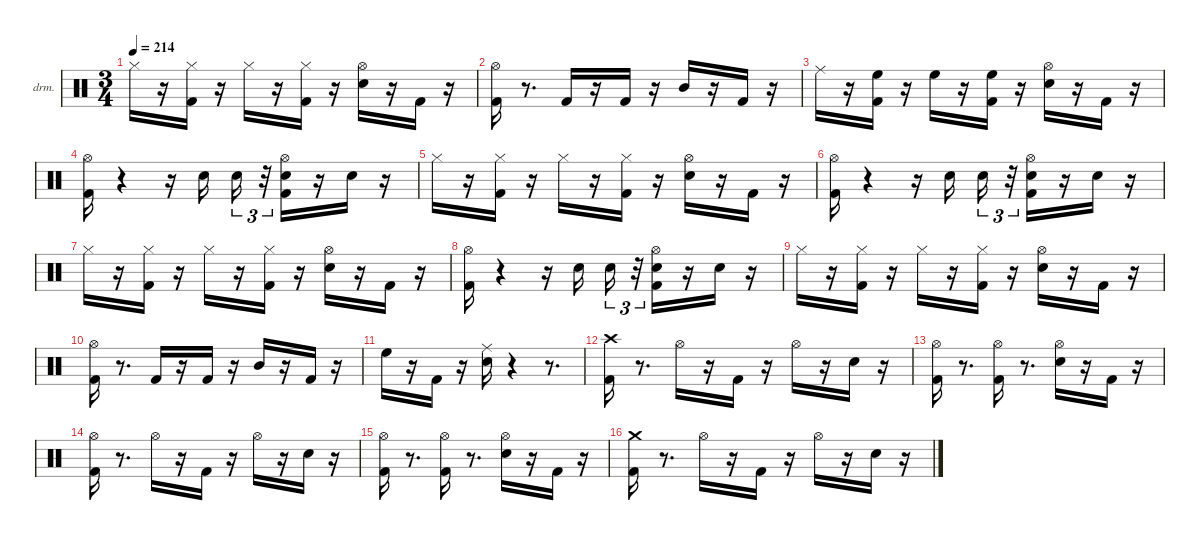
\hideDynamics
\bracketExtendMode nobrackets
\firstSystemTrackNameOrientation horizontal
\otherSystemsTrackNameOrientation horizontal
\track ("EZdrummer 3" "drm.") {instrument percussion}
\staff {score}
\articulation defaults
\ts (3 4)
\tempo 214
\clef neutral
\ks aminor "Hi-Hat (closed)"{acc #}.16{dy f beam Down}
r.16{beam Down} ("Kick (hit) 2" "Hi-Hat (closed)"{acc #}).16{dy ff beam Down} r.16{beam Down} "Hi-Hat (closed)"{acc #}.16{dy pp beam Down} r.16{beam Down} ("Kick (hit) 2" "Hi-Hat (closed)"{acc #}).16{dy f beam Down} r.16{beam Down} ("Snare (hit) 2" "Hi-Hat (open)"{acc #}).16{dy ff beam Down} r.16{beam Down} "Kick (hit) 2".16{dy mf beam Up} r.16{beam Up} |
("Kick (hit) 2" "Hi-Hat (open)"{acc #}).16{dy ff beam Down} r.8{d beam Down} "Kick (hit) 2".16{beam Up} r.16{beam Up} "Kick (hit) 2".16{beam Up} r.16{beam Up} "Mid Tom (hit)".16{beam Up} r.16{beam Up} "Kick (hit) 2".16{beam Up} r.16{beam Up} |
"Ride (middle)"{acc #}.16{beam Down} r.16{beam Down} ("Kick (hit) 2" "High Floor Tom (hit)").16{beam Down} r.16{beam Down} "High Floor Tom (hit)".16{dy fff beam Down} r.16{beam Down} ("Kick (hit) 2" "High Floor Tom (hit)").16{dy f beam Down} r.16{beam Down} ("Snare (hit) 2" "Hi-Hat (open)"{acc #}).16{dy ff beam Down} r.16{beam Down} "Kick (hit) 2".16{dy mf beam Up} r.16{beam Up} |
("Kick (hit) 2" "Hi-Hat (open)"{acc #}).16{dy ff beam Down} r.4{beam Down} r.16{beam Down} "Snare (hit) 2".16{dy f beam Down} "Snare (hit) 2".16{tu (3 2) dy p beam Down} r.32{tu (3 2) beam Down} ("Kick (hit) 2" "Snare (hit) 2" "Hi-Hat (open)"{acc #}).16{dy f beam Down} r.16{beam Down} "Snare (hit) 2".16{dy fff beam Down} r.16{beam Down} |
"Hi-Hat (closed)"{acc #}.16{dy f beam Down} r.16{beam Down} ("Kick (hit) 2" "Hi-Hat (closed)"{acc #}).16{dy ff beam Down} r.16{beam Down} "Hi-Hat (closed)"{acc #}.16{dy pp beam Down} r.16{beam Down} ("Kick (hit) 2" "Hi-Hat (closed)"{acc #}).16{dy f beam Down} r.16{beam Down} ("Snare (hit) 2" "Hi-Hat (open)"{acc #}).16{dy ff beam Down} r.16{beam Down} "Kick (hit) 2".16{dy mf beam Up} r.16{beam Up} |
("Kick (hit) 2" "Hi-Hat (open)"{acc #}).16{dy ff beam Down} r.4{beam Down} r.16{beam Down} "Snare (hit) 2".16{dy f beam Down} "Snare (hit) 2".16{tu (3 2) dy p beam Down} r.32{tu (3 2) beam Down} ("Kick (hit) 2" "Snare (hit) 2" "Hi-Hat (open)"{acc #}).16{dy f beam Down} r.16{beam Down} "Snare (hit) 2".16{dy fff beam Down} r.16{beam Down} |
"Hi-Hat (closed)"{acc #}.16{dy f beam Down} r.16{beam Down} ("Kick (hit) 2" "Hi-Hat (closed)"{acc #}).16{dy ff beam Down} r.16{beam Down} "Hi-Hat (closed)"{acc #}.16{dy pp beam Down} r.16{beam Down} ("Kick (hit) 2" "Hi-Hat (closed)"{acc #}).16{dy f beam Down} r.16{beam Down} ("Snare (hit) 2" "Hi-Hat (open)"{acc #}).16{dy ff beam Down} r.16{beam Down} "Kick (hit) 2".16{dy mf beam Up} r.16{beam Up} |
("Kick (hit) 2" "Hi-Hat (open)"{acc #}).16{dy fff beam Down} r.4{beam Down} r.16{beam Down} "Snare (hit) 2".16{dy f beam Down} "Snare (hit) 2".16{tu (3 2) dy p beam Down} r.32{tu (3 2) beam Down} ("Hi-Hat (open)"{acc #} "Kick (hit) 2" "Snare (hit) 2").16{dy ff beam Down} r.16{beam Down} "Snare (hit) 2".16{dy fff beam Down} r.16{beam Down} |
"Hi-Hat (closed)"{acc #}.16{dy f beam Down} r.16{beam Down} ("Kick (hit) 2" "Hi-Hat (closed)"{acc #}).16{dy ff beam Down} r.16{beam Down} "Hi-Hat (closed)"{acc #}.16{dy pp beam Down} r.16{beam Down} ("Kick (hit) 2" "Hi-Hat (closed)"{acc #}).16{dy f beam Down} r.16{beam Down} ("Snare (hit) 2" "Hi-Hat (open)"{acc #}).16{dy ff beam Down} r.16{beam Down} "Kick (hit) 2".16{dy mf beam Up} r.16{beam Up} |
("Kick (hit) 2" "Hi-Hat (open)"{acc #}).16{dy fff beam Down} r.8{d beam Down} "Kick (hit) 2".16{dy ff beam Up} r.16{beam Up} "Kick (hit) 2".16{beam Up} r.16{beam Up} "Mid Tom (hit)".16{beam Up} r.16{beam Up} "Kick (hit) 2".16{beam Up} r.16{beam Up} |
"High Floor Tom (hit)".16{beam Down} r.16{beam Down} "Kick (hit) 2".16{beam Up} r.16{beam Up} ("Snare (hit) 2" "Ride (middle)"{acc #}).16{dy fff beam Down} r.4{beam Down} r.8{d beam Down} |
("Kick (hit) 2" "Crash high (hit)"{acc #}).16{beam Down} r.8{d beam Down} "Hi-Hat (open)"{acc #}.16{dy mf beam Down} r.16{beam Down} "Kick (hit) 2".16{dy ff beam Up} r.16{beam Up} "Hi-Hat (open)"{acc #}.16{dy f beam Down} r.16{beam Down} "Snare (hit) 2".16{dy ff beam Down} r.16{beam Down} |
("Kick (hit) 2" "Hi-Hat (open)"{acc #}).16{dy fff beam Down} r.8{d beam Down} ("Kick (hit) 2" "Hi-Hat (open)"{acc #}).16{dy f beam Down} r.8{d beam Down} ("Snare (hit) 2" "Hi-Hat (open)"{acc #}).16{beam Down} r.16{beam Down} "Kick (hit) 2".16{dy mp beam Up} r.16{beam Up} |
("Kick (hit) 2" "Hi-Hat (open)"{acc #}).16{dy fff beam Down} r.8{d beam Down} "Hi-Hat (open)"{acc #}.16{dy mf beam Down} r.16{beam Down} "Kick (hit) 2".16{dy ff beam Up} r.16{beam Up} "Hi-Hat (open)"{acc #}.16{dy f beam Down} r.16{beam Down} "Snare (hit) 2".16{dy ff beam Down} r.16{beam Down} |
("Kick (hit) 2" "Hi-Hat (open)"{acc #}).16{dy fff beam Down} r.8{d beam Down} ("Kick (hit) 2" "Hi-Hat (open)"{acc #}).16{dy ff beam Down} r.8{d beam Down} ("Snare (hit) 2" "Hi-Hat (open)"{acc #}).16{dy f beam Down} r.16{beam Down} "Kick (hit) 2".16{dy mp beam Up} r.16{beam Up} |
("Kick (hit) 2" "Crash medium (hit)").16{dy fff beam Down} r.8{d beam Down} "Hi-Hat (open)"{acc #}.16{dy mf beam Down} r.16{beam Down} "Kick (hit) 2".16{dy ff beam Up} r.16{beam Up} "Hi-Hat (open)"{acc #}.16{dy f beam Down} r.16{beam Down} "Snare (hit) 2".16{dy ff beam Down} r.16{beam Down}
